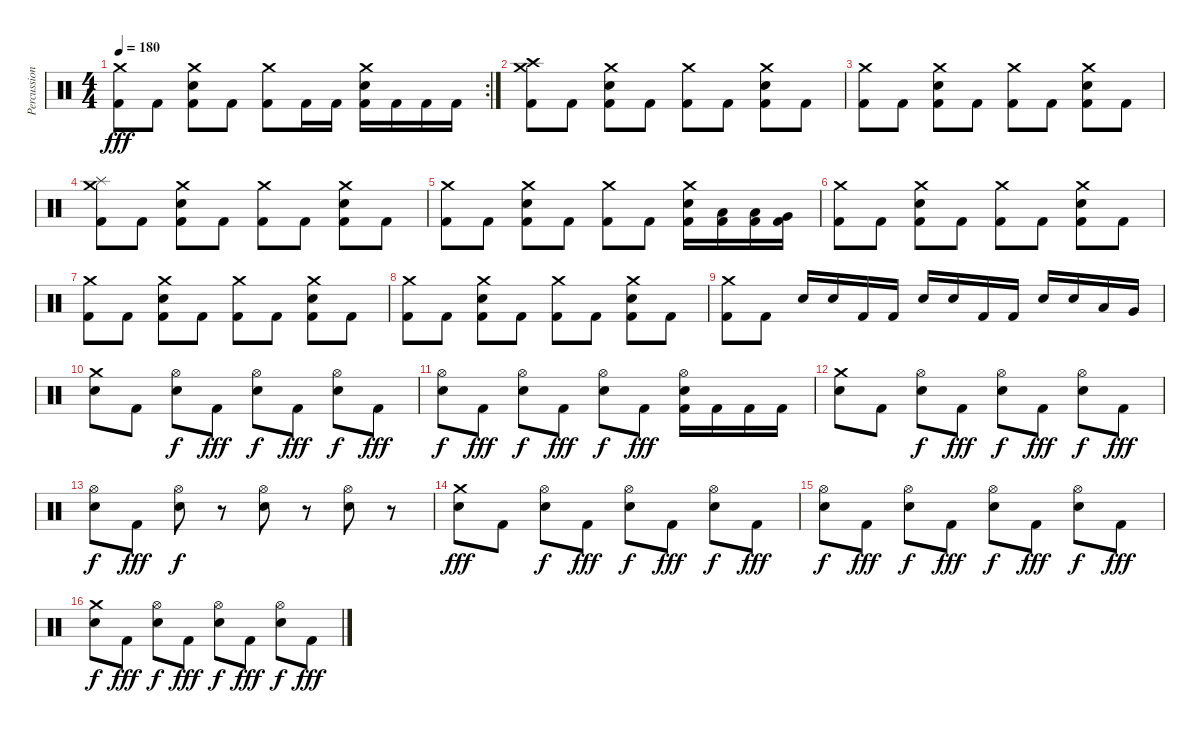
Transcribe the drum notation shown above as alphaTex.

\track ("Percussion (Francisco Izquierdo)" "Percussion") {instrument percussion}
\staff {score}
\articulation defaults
\rc 2
\ts (4 4)
\tempo 180
\clef neutral
\ks c
("Crash medium (hit)" "Kick (hit) 2").8{dy fff} "Kick (hit) 2".8 ("Crash medium (hit)" "Electric Snare (hit)" "Kick (hit) 2").8 "Kick (hit) 2".8 ("Crash medium (hit)" "Kick (hit) 2").8 "Kick (hit) 2".16 "Kick (hit) 2".16 ("Crash medium (hit)" "Electric Snare (hit)" "Kick (hit) 2").16 "Kick (hit) 2".16 "Kick (hit) 2".16 "Kick (hit) 2".16 |
("Crash medium (hit)" "Crash high (hit)" "Kick (hit) 2").8 "Kick (hit) 2".8 ("Crash medium (hit)" "Electric Snare (hit)" "Kick (hit) 2").8 "Kick (hit) 2".8 ("Crash medium (hit)" "Kick (hit) 2").8 "Kick (hit) 2".8 ("Crash medium (hit)" "Electric Snare (hit)" "Kick (hit) 2").8 "Kick (hit) 2".8 |
("Crash medium (hit)" "Kick (hit) 2").8 "Kick (hit) 2".8 ("Crash medium (hit)" "Electric Snare (hit)" "Kick (hit) 2").8 "Kick (hit) 2".8 ("Crash medium (hit)" "Kick (hit) 2").8 "Kick (hit) 2".8 ("Crash medium (hit)" "Electric Snare (hit)" "Kick (hit) 2").8 "Kick (hit) 2".8 |
("Crash medium (hit)" "Splash (hit)" "Kick (hit) 2").8 "Kick (hit) 2".8 ("Crash medium (hit)" "Electric Snare (hit)" "Kick (hit) 2").8 "Kick (hit) 2".8 ("Crash medium (hit)" "Kick (hit) 2").8 "Kick (hit) 2".8 ("Crash medium (hit)" "Electric Snare (hit)" "Kick (hit) 2").8 "Kick (hit) 2".8 |
("Crash medium (hit)" "Kick (hit) 2").8 "Kick (hit) 2".8 ("Crash medium (hit)" "Electric Snare (hit)" "Kick (hit) 2").8 "Kick (hit) 2".8 ("Crash medium (hit)" "Kick (hit) 2").8 "Kick (hit) 2".8 ("Crash medium (hit)" "Electric Snare (hit)" "Kick (hit) 2").16 ("Low Tom (hit)" "Kick (hit) 2").16 ("Low Tom (hit)" "Kick (hit) 2").16 ("Very Low Tom (hit)" "Kick (hit) 2").16 |
("Crash medium (hit)" "Kick (hit) 2").8 "Kick (hit) 2".8 ("Crash medium (hit)" "Electric Snare (hit)" "Kick (hit) 2").8 "Kick (hit) 2".8 ("Crash medium (hit)" "Kick (hit) 2").8 "Kick (hit) 2".8 ("Crash medium (hit)" "Electric Snare (hit)" "Kick (hit) 2").8 "Kick (hit) 2".8 |
("Crash medium (hit)" "Kick (hit) 2").8 "Kick (hit) 2".8 ("Crash medium (hit)" "Electric Snare (hit)" "Kick (hit) 2").8 "Kick (hit) 2".8 ("Crash medium (hit)" "Kick (hit) 2").8 "Kick (hit) 2".8 ("Crash medium (hit)" "Electric Snare (hit)" "Kick (hit) 2").8 "Kick (hit) 2".8 |
("Crash medium (hit)" "Kick (hit) 2").8 "Kick (hit) 2".8 ("Crash medium (hit)" "Electric Snare (hit)" "Kick (hit) 2").8 "Kick (hit) 2".8 ("Crash medium (hit)" "Kick (hit) 2").8 "Kick (hit) 2".8 ("Crash medium (hit)" "Electric Snare (hit)" "Kick (hit) 2").8 "Kick (hit) 2".8 |
("Crash medium (hit)" "Kick (hit) 2").8 "Kick (hit) 2".8 "Electric Snare (hit)".16 "Electric Snare (hit)".16 "Kick (hit) 2".16 "Kick (hit) 2".16 "Electric Snare (hit)".16 "Electric Snare (hit)".16 "Kick (hit) 2".16 "Kick (hit) 2".16 "Electric Snare (hit)".16 "Electric Snare (hit)".16 "Low Tom (hit)".16 "Very Low Tom (hit)".16 |
("Crash medium (hit)" "Electric Snare (hit)").8 "Kick (hit) 2".8 ("Hi-Hat (open)" "Electric Snare (hit)").8{dy f} "Kick (hit) 2".8{dy fff} ("Hi-Hat (open)" "Electric Snare (hit)").8{dy f} "Kick (hit) 2".8{dy fff} ("Hi-Hat (open)" "Electric Snare (hit)").8{dy f} "Kick (hit) 2".8{dy fff} |
("Hi-Hat (open)" "Electric Snare (hit)").8{dy f} "Kick (hit) 2".8{dy fff} ("Hi-Hat (open)" "Electric Snare (hit)").8{dy f} "Kick (hit) 2".8{dy fff} ("Hi-Hat (open)" "Electric Snare (hit)").8{dy f} "Kick (hit) 2".8{dy fff} ("Hi-Hat (open)" "Electric Snare (hit)" "Kick (hit) 2").16 "Kick (hit) 2".16 "Kick (hit) 2".16 "Kick (hit) 2".16 |
("Crash medium (hit)" "Electric Snare (hit)").8 "Kick (hit) 2".8 ("Hi-Hat (open)" "Electric Snare (hit)").8{dy f} "Kick (hit) 2".8{dy fff} ("Hi-Hat (open)" "Electric Snare (hit)").8{dy f} "Kick (hit) 2".8{dy fff} ("Hi-Hat (open)" "Electric Snare (hit)").8{dy f} "Kick (hit) 2".8{dy fff} |
("Hi-Hat (open)" "Electric Snare (hit)").8{dy f} "Kick (hit) 2".8{dy fff} ("Hi-Hat (open)" "Electric Snare (hit)").8{dy f} r.8 ("Hi-Hat (open)" "Electric Snare (hit)").8 r.8 ("Hi-Hat (open)" "Electric Snare (hit)").8 r.8 |
("Crash medium (hit)" "Electric Snare (hit)").8{dy fff} "Kick (hit) 2".8 ("Hi-Hat (open)" "Electric Snare (hit)").8{dy f} "Kick (hit) 2".8{dy fff} ("Hi-Hat (open)" "Electric Snare (hit)").8{dy f} "Kick (hit) 2".8{dy fff} ("Hi-Hat (open)" "Electric Snare (hit)").8{dy f} "Kick (hit) 2".8{dy fff} |
("Hi-Hat (open)" "Electric Snare (hit)").8{dy f} "Kick (hit) 2".8{dy fff} ("Hi-Hat (open)" "Electric Snare (hit)").8{dy f} "Kick (hit) 2".8{dy fff} ("Hi-Hat (open)" "Electric Snare (hit)").8{dy f} "Kick (hit) 2".8{dy fff} ("Hi-Hat (open)" "Electric Snare (hit)").8{dy f} "Kick (hit) 2".8{dy fff} |
("Crash medium (hit)" "Electric Snare (hit)").8{dy f} "Kick (hit) 2".8{dy fff} ("Hi-Hat (open)" "Electric Snare (hit)").8{dy f} "Kick (hit) 2".8{dy fff} ("Hi-Hat (open)" "Electric Snare (hit)").8{dy f} "Kick (hit) 2".8{dy fff} ("Hi-Hat (open)" "Electric Snare (hit)").8{dy f} "Kick (hit) 2".8{dy fff}
